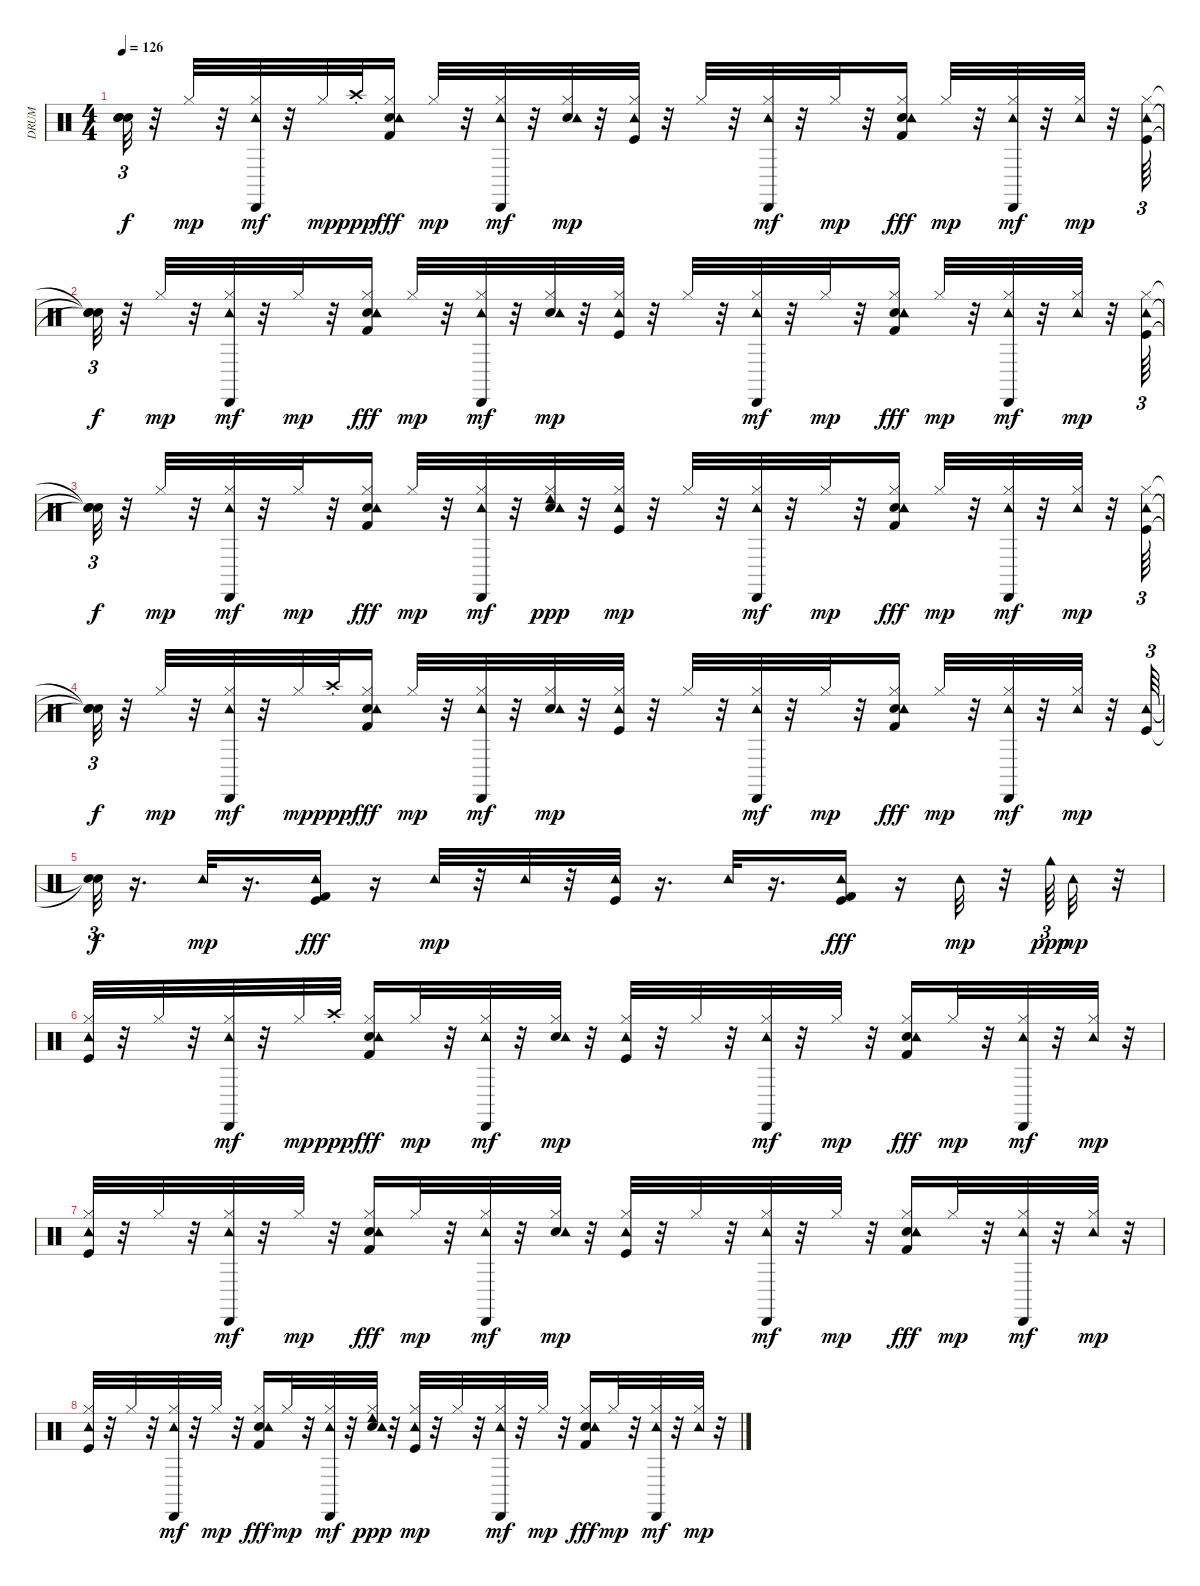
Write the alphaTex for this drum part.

\track ("DRUM" "DRUM") {instrument percussion}
\staff {score}
\articulation defaults
\ts (4 4)
\tempo 126
\clef neutral
\ks c
("Snare (hit)"{t} "Snare (hit)"{t} "Snare (hit)"{t}).32{tu (3 2) dy f} r.32 "Hi-Hat (closed)".32{dy mp} r.32 ("Hi-Hat (closed)" "Tambourine (hit)" "Cabasa (hit)").32{dy mf} r.32 "Hi-Hat (closed)".32{dy mp} "Crash high (choke)".32{dy ppp} ("Snare (hit) 2" "Hi-Hat (closed)" "Tambourine (hit)" "Kick (hit) 2").16{dy fff} "Hi-Hat (closed)".32{dy mp} r.32 ("Hi-Hat (closed)" "Tambourine (hit)" "Cabasa (hit)").32{dy mf} r.32 ("Snare (hit) 2" "Hi-Hat (closed)" "Tambourine (hit)").32{dy mp} r.32 ("Kick (hit)" "Hi-Hat (closed)" "Tambourine (hit)").32 r.32 "Hi-Hat (closed)".32 r.32 ("Hi-Hat (closed)" "Tambourine (hit)" "Cabasa (hit)").32{dy mf} r.32 "Hi-Hat (closed)".32{dy mp} r.32 ("Snare (hit) 2" "Hi-Hat (closed)" "Tambourine (hit)" "Kick (hit) 2").16{dy fff} "Hi-Hat (closed)".32{dy mp} r.32 ("Hi-Hat (closed)" "Tambourine (hit)" "Cabasa (hit)").32{dy mf} r.32 ("Hi-Hat (closed)" "Tambourine (hit)").32{dy mp} r.32 ("Kick (hit)" "Hi-Hat (closed)" "Tambourine (hit)").64{tu (3 2)} |
("Snare (hit)"{t} "Snare (hit)"{t} "Snare (hit)"{t}).32{tu (3 2) dy f} r.32 "Hi-Hat (closed)".32{dy mp} r.32 ("Hi-Hat (closed)" "Tambourine (hit)" "Cabasa (hit)").32{dy mf} r.32 "Hi-Hat (closed)".32{dy mp} r.32 ("Snare (hit) 2" "Hi-Hat (closed)" "Tambourine (hit)" "Kick (hit) 2").16{dy fff} "Hi-Hat (closed)".32{dy mp} r.32 ("Hi-Hat (closed)" "Tambourine (hit)" "Cabasa (hit)").32{dy mf} r.32 ("Snare (hit) 2" "Hi-Hat (closed)" "Tambourine (hit)").32{dy mp} r.32 ("Kick (hit)" "Hi-Hat (closed)" "Tambourine (hit)").32 r.32 "Hi-Hat (closed)".32 r.32 ("Hi-Hat (closed)" "Tambourine (hit)" "Cabasa (hit)").32{dy mf} r.32 "Hi-Hat (closed)".32{dy mp} r.32 ("Snare (hit) 2" "Hi-Hat (closed)" "Tambourine (hit)" "Kick (hit) 2").16{dy fff} "Hi-Hat (closed)".32{dy mp} r.32 ("Hi-Hat (closed)" "Tambourine (hit)" "Cabasa (hit)").32{dy mf} r.32 ("Hi-Hat (closed)" "Tambourine (hit)").32{dy mp} r.32 ("Kick (hit)" "Hi-Hat (closed)" "Tambourine (hit)").64{tu (3 2)} |
("Snare (hit)"{t} "Snare (hit)"{t} "Snare (hit)"{t}).32{tu (3 2) dy f} r.32 "Hi-Hat (closed)".32{dy mp} r.32 ("Hi-Hat (closed)" "Tambourine (hit)" "Cabasa (hit)").32{dy mf} r.32 "Hi-Hat (closed)".32{dy mp} r.32 ("Snare (hit) 2" "Hi-Hat (closed)" "Tambourine (hit)" "Kick (hit) 2").16{dy fff} "Hi-Hat (closed)".32{dy mp} r.32 ("Hi-Hat (closed)" "Tambourine (hit)" "Cabasa (hit)").32{dy mf} r.32 ("Snare (hit) 2" "Hi-Hat (closed)" "Tambourine (hit)" "Cowbell low (hit)").32{dy ppp} r.32 ("Kick (hit)" "Hi-Hat (closed)" "Tambourine (hit)").32{dy mp} r.32 "Hi-Hat (closed)".32 r.32 ("Hi-Hat (closed)" "Tambourine (hit)" "Cabasa (hit)").32{dy mf} r.32 "Hi-Hat (closed)".32{dy mp} r.32 ("Snare (hit) 2" "Hi-Hat (closed)" "Tambourine (hit)" "Kick (hit) 2").16{dy fff} "Hi-Hat (closed)".32{dy mp} r.32 ("Hi-Hat (closed)" "Tambourine (hit)" "Cabasa (hit)").32{dy mf} r.32 ("Hi-Hat (closed)" "Tambourine (hit)").32{dy mp} r.32 ("Kick (hit)" "Hi-Hat (closed)" "Tambourine (hit)").64{tu (3 2)} |
("Snare (hit)"{t} "Snare (hit)"{t} "Snare (hit)"{t}).32{tu (3 2) dy f} r.32 "Hi-Hat (closed)".32{dy mp} r.32 ("Hi-Hat (closed)" "Tambourine (hit)" "Cabasa (hit)").32{dy mf} r.32 "Hi-Hat (closed)".32{dy mp} "Crash high (choke)".32{dy ppp} ("Snare (hit) 2" "Hi-Hat (closed)" "Tambourine (hit)" "Kick (hit) 2").16{dy fff} "Hi-Hat (closed)".32{dy mp} r.32 ("Hi-Hat (closed)" "Tambourine (hit)" "Cabasa (hit)").32{dy mf} r.32 ("Snare (hit) 2" "Hi-Hat (closed)" "Tambourine (hit)").32{dy mp} r.32 ("Kick (hit)" "Hi-Hat (closed)" "Tambourine (hit)").32 r.32 "Hi-Hat (closed)".32 r.32 ("Hi-Hat (closed)" "Tambourine (hit)" "Cabasa (hit)").32{dy mf} r.32 "Hi-Hat (closed)".32{dy mp} r.32 ("Snare (hit) 2" "Hi-Hat (closed)" "Tambourine (hit)" "Kick (hit) 2").16{dy fff} "Hi-Hat (closed)".32{dy mp} r.32 ("Hi-Hat (closed)" "Tambourine (hit)" "Cabasa (hit)").32{dy mf} r.32 ("Hi-Hat (closed)" "Tambourine (hit)").32{dy mp} r.32 ("Kick (hit)" "Tambourine (hit)").64{tu (3 2)} |
("Snare (hit)"{t} "Snare (hit)"{t}).32{tu (3 2) dy f} r.16{d} "Tambourine (hit)".32{dy mp} r.16{d} ("Kick (hit)" "Tambourine (hit)" "Kick (hit) 2").16{dy fff} r.16 "Tambourine (hit)".32{dy mp} r.32 "Tambourine (hit)".32 r.32 ("Kick (hit)" "Tambourine (hit)").32 r.16{d} "Tambourine (hit)".32 r.16{d} ("Kick (hit)" "Tambourine (hit)" "Kick (hit) 2").16{dy fff} r.16 "Tambourine (hit)".32{dy mp} r.32 "Cowbell high (hit)".64{tu (3 2) dy ppp} "Tambourine (hit)".32{dy mp} r.32 |
("Kick (hit)" "Hi-Hat (closed)" "Tambourine (hit)").32 r.32 "Hi-Hat (closed)".32 r.32 ("Hi-Hat (closed)" "Tambourine (hit)" "Cabasa (hit)").32{dy mf} r.32 "Hi-Hat (closed)".32{dy mp} "Crash high (choke)".32{dy ppp} ("Snare (hit) 2" "Hi-Hat (closed)" "Tambourine (hit)" "Kick (hit) 2").16{dy fff} "Hi-Hat (closed)".32{dy mp} r.32 ("Hi-Hat (closed)" "Tambourine (hit)" "Cabasa (hit)").32{dy mf} r.32 ("Snare (hit) 2" "Hi-Hat (closed)" "Tambourine (hit)").32{dy mp} r.32 ("Kick (hit)" "Hi-Hat (closed)" "Tambourine (hit)").32 r.32 "Hi-Hat (closed)".32 r.32 ("Hi-Hat (closed)" "Tambourine (hit)" "Cabasa (hit)").32{dy mf} r.32 "Hi-Hat (closed)".32{dy mp} r.32 ("Snare (hit) 2" "Hi-Hat (closed)" "Tambourine (hit)" "Kick (hit) 2").16{dy fff} "Hi-Hat (closed)".32{dy mp} r.32 ("Hi-Hat (closed)" "Tambourine (hit)" "Cabasa (hit)").32{dy mf} r.32 ("Hi-Hat (closed)" "Tambourine (hit)").32{dy mp} r.32 |
("Kick (hit)" "Hi-Hat (closed)" "Tambourine (hit)").32 r.32 "Hi-Hat (closed)".32 r.32 ("Hi-Hat (closed)" "Tambourine (hit)" "Cabasa (hit)").32{dy mf} r.32 "Hi-Hat (closed)".32{dy mp} r.32 ("Snare (hit) 2" "Hi-Hat (closed)" "Tambourine (hit)" "Kick (hit) 2").16{dy fff} "Hi-Hat (closed)".32{dy mp} r.32 ("Hi-Hat (closed)" "Tambourine (hit)" "Cabasa (hit)").32{dy mf} r.32 ("Snare (hit) 2" "Hi-Hat (closed)" "Tambourine (hit)").32{dy mp} r.32 ("Kick (hit)" "Hi-Hat (closed)" "Tambourine (hit)").32 r.32 "Hi-Hat (closed)".32 r.32 ("Hi-Hat (closed)" "Tambourine (hit)" "Cabasa (hit)").32{dy mf} r.32 "Hi-Hat (closed)".32{dy mp} r.32 ("Snare (hit) 2" "Hi-Hat (closed)" "Tambourine (hit)" "Kick (hit) 2").16{dy fff} "Hi-Hat (closed)".32{dy mp} r.32 ("Hi-Hat (closed)" "Tambourine (hit)" "Cabasa (hit)").32{dy mf} r.32 ("Hi-Hat (closed)" "Tambourine (hit)").32{dy mp} r.32 |
("Kick (hit)" "Hi-Hat (closed)" "Tambourine (hit)").32 r.32 "Hi-Hat (closed)".32 r.32 ("Hi-Hat (closed)" "Tambourine (hit)" "Cabasa (hit)").32{dy mf} r.32 "Hi-Hat (closed)".32{dy mp} r.32 ("Snare (hit) 2" "Hi-Hat (closed)" "Tambourine (hit)" "Kick (hit) 2").16{dy fff} "Hi-Hat (closed)".32{dy mp} r.32 ("Hi-Hat (closed)" "Tambourine (hit)" "Cabasa (hit)").32{dy mf} r.32 ("Snare (hit) 2" "Hi-Hat (closed)" "Tambourine (hit)" "Cowbell low (hit)").32{dy ppp} r.32 ("Kick (hit)" "Hi-Hat (closed)" "Tambourine (hit)").32{dy mp} r.32 "Hi-Hat (closed)".32 r.32 ("Hi-Hat (closed)" "Tambourine (hit)" "Cabasa (hit)").32{dy mf} r.32 "Hi-Hat (closed)".32{dy mp} r.32 ("Snare (hit) 2" "Hi-Hat (closed)" "Tambourine (hit)" "Kick (hit) 2").16{dy fff} "Hi-Hat (closed)".32{dy mp} r.32 ("Hi-Hat (closed)" "Tambourine (hit)" "Cabasa (hit)").32{dy mf} r.32 ("Hi-Hat (closed)" "Tambourine (hit)").32{dy mp} r.32
